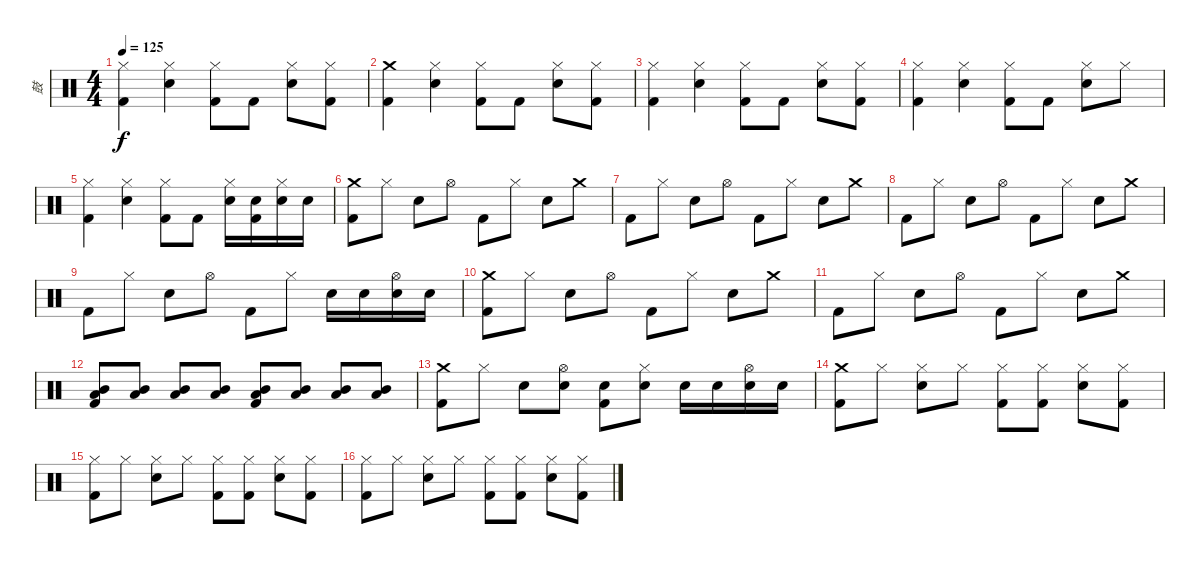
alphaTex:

\track ("鼓" "鼓") {instrument percussion}
\staff {score}
\articulation defaults
\ts (4 4)
\tempo 125
\clef neutral
\ks c
("Hi-Hat (closed)" "Kick (hit) 2").4{dy f} ("Hi-Hat (closed)" "Electric Snare (hit)").4 ("Hi-Hat (closed)" "Kick (hit) 2").8 "Kick (hit) 2".8 ("Hi-Hat (closed)" "Electric Snare (hit)").8 ("Hi-Hat (closed)" "Kick (hit) 2").8 |
("Crash medium (hit)" "Kick (hit) 2").4 ("Hi-Hat (closed)" "Electric Snare (hit)").4 ("Hi-Hat (closed)" "Kick (hit) 2").8 "Kick (hit) 2".8 ("Hi-Hat (closed)" "Electric Snare (hit)").8 ("Hi-Hat (closed)" "Kick (hit) 2").8 |
("Hi-Hat (closed)" "Kick (hit) 2").4 ("Hi-Hat (closed)" "Electric Snare (hit)").4 ("Hi-Hat (closed)" "Kick (hit) 2").8 "Kick (hit) 2".8 ("Hi-Hat (closed)" "Electric Snare (hit)").8 ("Hi-Hat (closed)" "Kick (hit) 2").8 |
("Hi-Hat (closed)" "Kick (hit) 2").4 ("Hi-Hat (closed)" "Electric Snare (hit)").4 ("Hi-Hat (closed)" "Kick (hit) 2").8 "Kick (hit) 2".8 ("Hi-Hat (closed)" "Electric Snare (hit)").8 "Hi-Hat (closed)".8 |
("Hi-Hat (closed)" "Kick (hit) 2").4 ("Hi-Hat (closed)" "Electric Snare (hit)").4 ("Hi-Hat (closed)" "Kick (hit) 2").8 "Kick (hit) 2".8 ("Hi-Hat (closed)" "Electric Snare (hit)").16 ("Electric Snare (hit)" "Kick (hit) 2").16 ("Hi-Hat (closed)" "Electric Snare (hit)").16 "Electric Snare (hit)".16 |
("Crash medium (hit)" "Kick (hit) 2").8 "Hi-Hat (closed)".8 "Electric Snare (hit)".8 "Hi-Hat (open)".8 "Kick (hit) 2".8 "Hi-Hat (closed)".8 "Electric Snare (hit)".8 "Crash medium (hit)".8 |
"Kick (hit) 2".8 "Hi-Hat (closed)".8 "Electric Snare (hit)".8 "Hi-Hat (open)".8 "Kick (hit) 2".8 "Hi-Hat (closed)".8 "Electric Snare (hit)".8 "Crash medium (hit)".8 |
"Kick (hit) 2".8 "Hi-Hat (closed)".8 "Electric Snare (hit)".8 "Hi-Hat (open)".8 "Kick (hit) 2".8 "Hi-Hat (closed)".8 "Electric Snare (hit)".8 "Crash medium (hit)".8 |
"Kick (hit) 2".8 "Hi-Hat (closed)".8 "Electric Snare (hit)".8 "Hi-Hat (open)".8 "Kick (hit) 2".8 "Hi-Hat (closed)".8 "Electric Snare (hit)".16 "Electric Snare (hit)".16 ("Hi-Hat (open)" "Electric Snare (hit)").16 "Electric Snare (hit)".16 |
("Crash medium (hit)" "Kick (hit) 2").8 "Hi-Hat (closed)".8 "Electric Snare (hit)".8 "Hi-Hat (open)".8 "Kick (hit) 2".8 "Hi-Hat (closed)".8 "Electric Snare (hit)".8 "Crash medium (hit)".8 |
"Kick (hit) 2".8 "Hi-Hat (closed)".8 "Electric Snare (hit)".8 "Hi-Hat (open)".8 "Kick (hit) 2".8 "Hi-Hat (closed)".8 "Electric Snare (hit)".8 "Crash medium (hit)".8 |
("Mid Tom (hit)" "Low Tom (hit)" "Kick (hit) 2").8 ("Mid Tom (hit)" "Low Tom (hit)").8 ("Mid Tom (hit)" "Low Tom (hit)").8 ("Mid Tom (hit)" "Low Tom (hit)").8 ("Mid Tom (hit)" "Low Tom (hit)" "Kick (hit) 2").8 ("Mid Tom (hit)" "Low Tom (hit)").8 ("Mid Tom (hit)" "Low Tom (hit)").8 ("Mid Tom (hit)" "Low Tom (hit)").8 |
("Crash medium (hit)" "Kick (hit) 2").8 "Hi-Hat (closed)".8 "Electric Snare (hit)".8 ("Hi-Hat (open)" "Electric Snare (hit)").8 ("Electric Snare (hit)" "Kick (hit) 2").8 ("Hi-Hat (closed)" "Electric Snare (hit)").8 "Electric Snare (hit)".16 "Electric Snare (hit)".16 ("Hi-Hat (open)" "Electric Snare (hit)").16 "Electric Snare (hit)".16 |
("Crash medium (hit)" "Kick (hit) 2").8 "Hi-Hat (closed)".8 ("Hi-Hat (closed)" "Electric Snare (hit)").8 "Hi-Hat (closed)".8 ("Hi-Hat (closed)" "Kick (hit) 2").8 ("Hi-Hat (closed)" "Kick (hit) 2").8 ("Hi-Hat (closed)" "Electric Snare (hit)").8 ("Hi-Hat (closed)" "Kick (hit) 2").8 |
("Hi-Hat (closed)" "Kick (hit) 2").8 "Hi-Hat (closed)".8 ("Hi-Hat (closed)" "Electric Snare (hit)").8 "Hi-Hat (closed)".8 ("Hi-Hat (closed)" "Kick (hit) 2").8 ("Hi-Hat (closed)" "Kick (hit) 2").8 ("Hi-Hat (closed)" "Electric Snare (hit)").8 ("Hi-Hat (closed)" "Kick (hit) 2").8 |
("Hi-Hat (closed)" "Kick (hit) 2").8 "Hi-Hat (closed)".8 ("Hi-Hat (closed)" "Electric Snare (hit)").8 "Hi-Hat (closed)".8 ("Hi-Hat (closed)" "Kick (hit) 2").8 ("Hi-Hat (closed)" "Kick (hit) 2").8 ("Hi-Hat (closed)" "Electric Snare (hit)").8 ("Hi-Hat (closed)" "Kick (hit) 2").8
